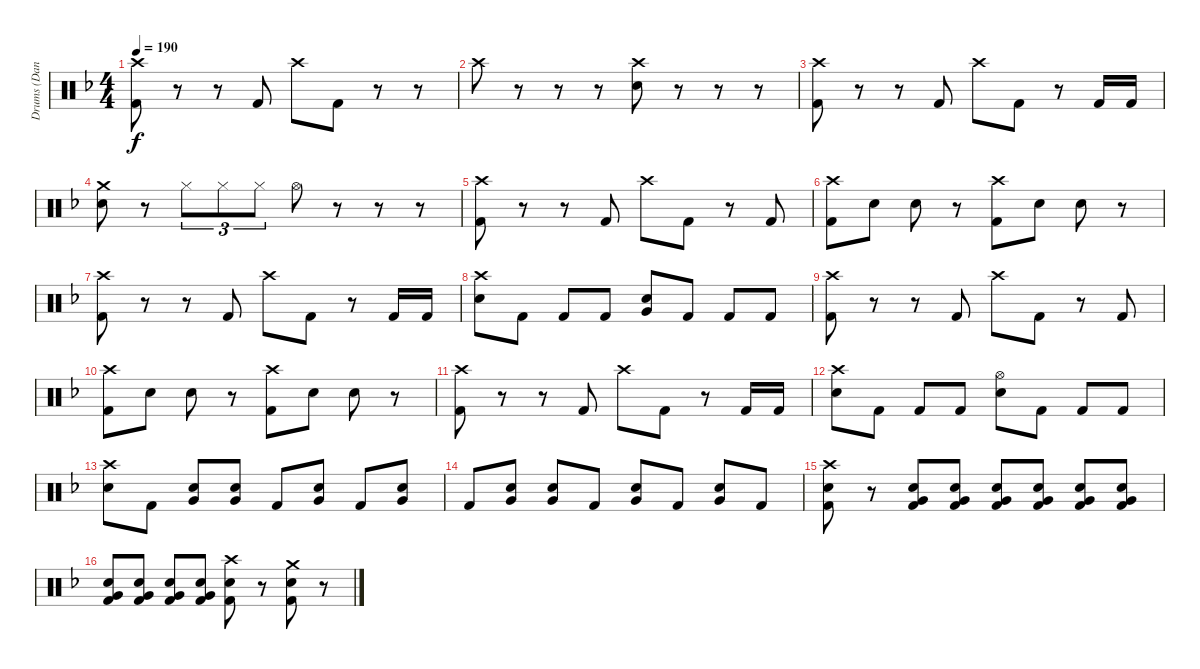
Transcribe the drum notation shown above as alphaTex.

\track ("Drums (Daniel)" "Drums (Dan") {instrument percussion}
\staff {score}
\articulation defaults
\ts (4 4)
\tempo 190
\clef neutral
\ks dminor
("Crash high (hit)" "Kick (hit) 2").8{dy f} r.8 r.8 "Kick (hit) 2".8 "Crash high (hit)".8 "Kick (hit) 2".8 r.8 r.8 |
"Crash high (hit)".8 r.8 r.8 r.8 ("Crash high (hit)" "Electric Snare (hit)").8 r.8 r.8 r.8 |
("Crash high (hit)" "Kick (hit) 2").8 r.8 r.8 "Kick (hit) 2".8 "Crash high (hit)".8 "Kick (hit) 2".8 r.8 "Kick (hit) 2".16 "Kick (hit) 2".16 |
("Crash medium (hit)" "Electric Snare (hit)").8 r.8 "Hi-Hat (closed)".8{tu (3 2)} "Hi-Hat (closed)".8{tu (3 2)} "Hi-Hat (closed)".8{tu (3 2)} "Hi-Hat (open)".8 r.8 r.8 r.8 |
("Crash high (hit)" "Kick (hit) 2").8 r.8 r.8 "Kick (hit) 2".8 "Crash high (hit)".8 "Kick (hit) 2".8 r.8 "Kick (hit) 2".8 |
("Crash high (hit)" "Kick (hit) 2").8 "Electric Snare (hit)".8 "Electric Snare (hit)".8 r.8 ("Crash high (hit)" "Kick (hit) 2").8 "Electric Snare (hit)".8 "Electric Snare (hit)".8 r.8 |
("Crash high (hit)" "Kick (hit) 2").8 r.8 r.8 "Kick (hit) 2".8 "Crash high (hit)".8 "Kick (hit) 2".8 r.8 "Kick (hit) 2".16 "Kick (hit) 2".16 |
("Crash high (hit)" "Electric Snare (hit)").8 "Kick (hit) 2".8 "Kick (hit) 2".8 "Kick (hit) 2".8 ("Very Low Tom (hit)" "Electric Snare (hit)").8 "Kick (hit) 2".8 "Kick (hit) 2".8 "Kick (hit) 2".8 |
("Crash high (hit)" "Kick (hit) 2").8 r.8 r.8 "Kick (hit) 2".8 "Crash high (hit)".8 "Kick (hit) 2".8 r.8 "Kick (hit) 2".8 |
("Crash high (hit)" "Kick (hit) 2").8 "Electric Snare (hit)".8 "Electric Snare (hit)".8 r.8 ("Crash high (hit)" "Kick (hit) 2").8 "Electric Snare (hit)".8 "Electric Snare (hit)".8 r.8 |
("Crash high (hit)" "Kick (hit) 2").8 r.8 r.8 "Kick (hit) 2".8 "Crash high (hit)".8 "Kick (hit) 2".8 r.8 "Kick (hit) 2".16 "Kick (hit) 2".16 |
("Crash high (hit)" "Electric Snare (hit)").8 "Kick (hit) 2".8 "Kick (hit) 2".8 "Kick (hit) 2".8 ("Hi-Hat (open)" "Electric Snare (hit)").8 "Kick (hit) 2".8 "Kick (hit) 2".8 "Kick (hit) 2".8 |
("Crash high (hit)" "Electric Snare (hit)").8 "Kick (hit) 2".8 ("Very Low Tom (hit)" "Electric Snare (hit)").8 ("Very Low Tom (hit)" "Electric Snare (hit)").8 "Kick (hit) 2".8 ("Very Low Tom (hit)" "Electric Snare (hit)").8 "Kick (hit) 2".8 ("Very Low Tom (hit)" "Electric Snare (hit)").8 |
"Kick (hit) 2".8 ("Very Low Tom (hit)" "Electric Snare (hit)").8 ("Very Low Tom (hit)" "Electric Snare (hit)").8 "Kick (hit) 2".8 ("Very Low Tom (hit)" "Electric Snare (hit)").8 "Kick (hit) 2".8 ("Very Low Tom (hit)" "Electric Snare (hit)").8 "Kick (hit) 2".8 |
("Crash high (hit)" "Electric Snare (hit)" "Kick (hit) 2").8 r.8 ("Very Low Tom (hit)" "Electric Snare (hit)" "Kick (hit) 2").8 ("Very Low Tom (hit)" "Electric Snare (hit)" "Kick (hit) 2").8 ("Very Low Tom (hit)" "Electric Snare (hit)" "Kick (hit) 2").8 ("Very Low Tom (hit)" "Electric Snare (hit)" "Kick (hit) 2").8 ("Very Low Tom (hit)" "Electric Snare (hit)" "Kick (hit) 2").8 ("Very Low Tom (hit)" "Electric Snare (hit)" "Kick (hit) 2").8 |
("Very Low Tom (hit)" "Electric Snare (hit)" "Kick (hit) 2").8 ("Very Low Tom (hit)" "Electric Snare (hit)" "Kick (hit) 2").8 ("Very Low Tom (hit)" "Electric Snare (hit)" "Kick (hit) 2").8 ("Very Low Tom (hit)" "Electric Snare (hit)" "Kick (hit) 2").8 ("Crash high (hit)" "Electric Snare (hit)" "Kick (hit) 2").8 r.8 ("Crash medium (hit)" "Electric Snare (hit)" "Kick (hit) 2").8 r.8
